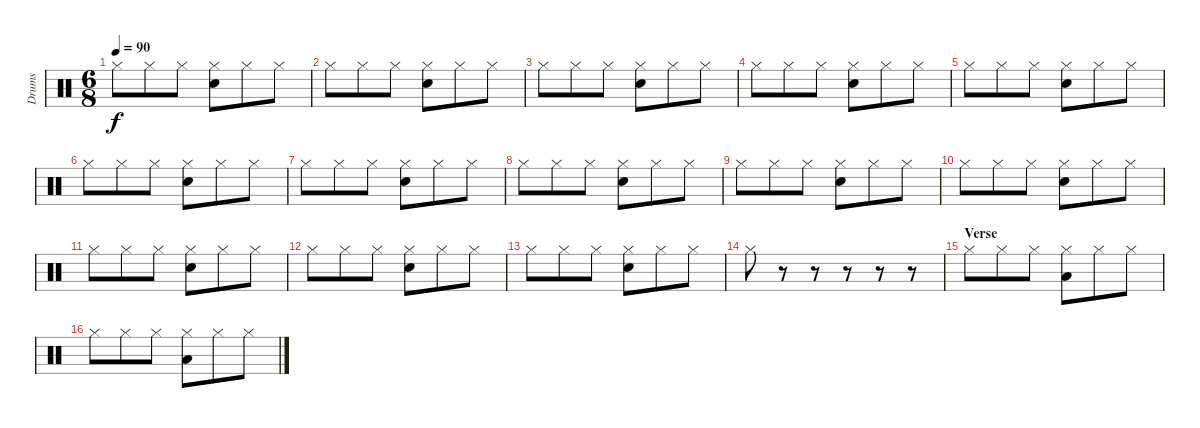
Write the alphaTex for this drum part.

\track ("Drums" "Drums") {instrument percussion}
\staff {score}
\articulation defaults
\ts (6 8)
\tempo 90
\clef neutral
\ks c "Hi-Hat (closed)".8{dy f} "Hi-Hat (closed)".8 "Hi-Hat (closed)".8
("Hi-Hat (closed)" "Electric Snare (hit)").8 "Hi-Hat (closed)".8 "Hi-Hat (closed)".8 |
"Hi-Hat (closed)".8 "Hi-Hat (closed)".8 "Hi-Hat (closed)".8 ("Hi-Hat (closed)" "Electric Snare (hit)").8 "Hi-Hat (closed)".8 "Hi-Hat (closed)".8 |
"Hi-Hat (closed)".8 "Hi-Hat (closed)".8 "Hi-Hat (closed)".8 ("Hi-Hat (closed)" "Electric Snare (hit)").8 "Hi-Hat (closed)".8 "Hi-Hat (closed)".8 |
"Hi-Hat (closed)".8 "Hi-Hat (closed)".8 "Hi-Hat (closed)".8 ("Hi-Hat (closed)" "Electric Snare (hit)").8 "Hi-Hat (closed)".8 "Hi-Hat (closed)".8 |
"Hi-Hat (closed)".8 "Hi-Hat (closed)".8 "Hi-Hat (closed)".8 ("Hi-Hat (closed)" "Electric Snare (hit)").8 "Hi-Hat (closed)".8 "Hi-Hat (closed)".8 |
"Hi-Hat (closed)".8 "Hi-Hat (closed)".8 "Hi-Hat (closed)".8 ("Hi-Hat (closed)" "Electric Snare (hit)").8 "Hi-Hat (closed)".8 "Hi-Hat (closed)".8 |
"Hi-Hat (closed)".8 "Hi-Hat (closed)".8 "Hi-Hat (closed)".8 ("Hi-Hat (closed)" "Electric Snare (hit)").8 "Hi-Hat (closed)".8 "Hi-Hat (closed)".8 |
"Hi-Hat (closed)".8 "Hi-Hat (closed)".8 "Hi-Hat (closed)".8 ("Hi-Hat (closed)" "Electric Snare (hit)").8 "Hi-Hat (closed)".8 "Hi-Hat (closed)".8 |
"Hi-Hat (closed)".8 "Hi-Hat (closed)".8 "Hi-Hat (closed)".8 ("Hi-Hat (closed)" "Electric Snare (hit)").8 "Hi-Hat (closed)".8 "Hi-Hat (closed)".8 |
"Hi-Hat (closed)".8 "Hi-Hat (closed)".8 "Hi-Hat (closed)".8 ("Hi-Hat (closed)" "Electric Snare (hit)").8 "Hi-Hat (closed)".8 "Hi-Hat (closed)".8 |
"Hi-Hat (closed)".8 "Hi-Hat (closed)".8 "Hi-Hat (closed)".8 ("Hi-Hat (closed)" "Electric Snare (hit)").8 "Hi-Hat (closed)".8 "Hi-Hat (closed)".8 |
"Hi-Hat (closed)".8 "Hi-Hat (closed)".8 "Hi-Hat (closed)".8 ("Hi-Hat (closed)" "Electric Snare (hit)").8 "Hi-Hat (closed)".8 "Hi-Hat (closed)".8 |
"Hi-Hat (closed)".8 "Hi-Hat (closed)".8 "Hi-Hat (closed)".8 ("Hi-Hat (closed)" "Electric Snare (hit)").8 "Hi-Hat (closed)".8 "Hi-Hat (closed)".8 |
"Hi-Hat (closed)".8 r.8 r.8 r.8 r.8 r.8 |
\section ("" "Verse")
"Hi-Hat (closed)".8 "Hi-Hat (closed)".8 "Hi-Hat (closed)".8 ("Hi-Hat (closed)" "Low Floor Tom (hit)").8 "Hi-Hat (closed)".8 "Hi-Hat (closed)".8 |
"Hi-Hat (closed)".8 "Hi-Hat (closed)".8 "Hi-Hat (closed)".8 ("Hi-Hat (closed)" "Low Floor Tom (hit)").8 "Hi-Hat (closed)".8 "Hi-Hat (closed)".8
